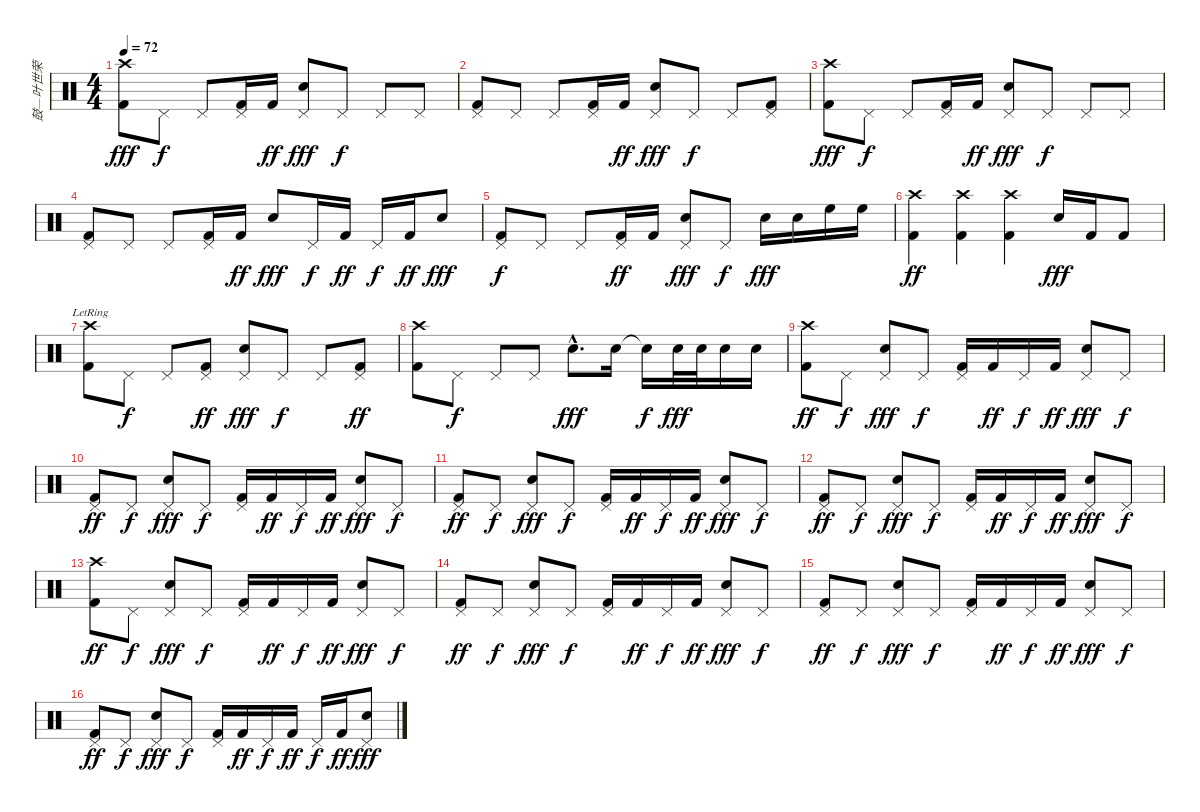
\track ("鼓—叶世荣" "鼓—叶世荣") {instrument percussion}
\staff {score}
\articulation defaults
\ts (4 4)
\tempo 72
\clef neutral
\ks c
("Crash high (hit)" "Kick (hit) 2").8{dy fff} "Pedal Hi-Hat (hit)".8{dy f} "Pedal Hi-Hat (hit)".8 ("Pedal Hi-Hat (hit)" "Kick (hit) 2").16 "Kick (hit) 2".16{dy ff} ("Pedal Hi-Hat (hit)" "Electric Snare (hit)").8{dy fff} "Pedal Hi-Hat (hit)".8{dy f} "Pedal Hi-Hat (hit)".8 "Pedal Hi-Hat (hit)".8 |
("Pedal Hi-Hat (hit)" "Kick (hit) 2").8 "Pedal Hi-Hat (hit)".8 "Pedal Hi-Hat (hit)".8 ("Pedal Hi-Hat (hit)" "Kick (hit) 2").16 "Kick (hit) 2".16{dy ff} ("Pedal Hi-Hat (hit)" "Electric Snare (hit)").8{dy fff} "Pedal Hi-Hat (hit)".8{dy f} "Pedal Hi-Hat (hit)".8 ("Pedal Hi-Hat (hit)" "Kick (hit) 2").8 |
("Crash high (hit)" "Kick (hit) 2").8{dy fff} "Pedal Hi-Hat (hit)".8{dy f} "Pedal Hi-Hat (hit)".8 ("Pedal Hi-Hat (hit)" "Kick (hit) 2").16 "Kick (hit) 2".16{dy ff} ("Pedal Hi-Hat (hit)" "Electric Snare (hit)").8{dy fff} "Pedal Hi-Hat (hit)".8{dy f} "Pedal Hi-Hat (hit)".8 "Pedal Hi-Hat (hit)".8 |
("Pedal Hi-Hat (hit)" "Kick (hit) 2").8 "Pedal Hi-Hat (hit)".8 "Pedal Hi-Hat (hit)".8 ("Pedal Hi-Hat (hit)" "Kick (hit) 2").16 "Kick (hit) 2".16{dy ff} "Electric Snare (hit)".8{dy fff} "Pedal Hi-Hat (hit)".16{dy f} "Kick (hit) 2".16{dy ff} "Pedal Hi-Hat (hit)".16{dy f} "Kick (hit) 2".16{dy ff} "Electric Snare (hit)".8{dy fff} |
("Pedal Hi-Hat (hit)" "Kick (hit) 2").8{dy f} "Pedal Hi-Hat (hit)".8 "Pedal Hi-Hat (hit)".8 ("Pedal Hi-Hat (hit)" "Kick (hit) 2").16{dy ff} "Kick (hit) 2".16 ("Pedal Hi-Hat (hit)" "Electric Snare (hit)").8{dy fff} "Pedal Hi-Hat (hit)".8{dy f} "Electric Snare (hit)".16{dy fff} "Electric Snare (hit)".16 "High Floor Tom (hit)".16 "High Floor Tom (hit)".16 |
("Crash high (hit)" "Kick (hit) 2").4{dy ff} ("Crash high (hit)" "Kick (hit) 2").4 ("Crash high (hit)" "Kick (hit) 2").4 "Electric Snare (hit)".16{dy fff} "Kick (hit) 2".16 "Kick (hit) 2".8 |
("Crash high (hit)"{lr} "Kick (hit) 2").8 "Pedal Hi-Hat (hit)".8{dy f} "Pedal Hi-Hat (hit)".8 ("Pedal Hi-Hat (hit)" "Kick (hit) 2").8{dy ff} ("Pedal Hi-Hat (hit)" "Electric Snare (hit)").8{dy fff} "Pedal Hi-Hat (hit)".8{dy f} "Pedal Hi-Hat (hit)".8 ("Pedal Hi-Hat (hit)" "Kick (hit) 2").8{dy ff} |
("Crash high (hit)" "Kick (hit) 2").8 "Pedal Hi-Hat (hit)".8{dy f} "Pedal Hi-Hat (hit)".8 "Pedal Hi-Hat (hit)".8 "Electric Snare (hit)"{hac}.8{d dy fff} "Electric Snare (hit)".16 "Snare (hit)"{t}.16{dy f} "Electric Snare (hit)".32{dy fff} "Electric Snare (hit)".32 "Electric Snare (hit)".16 "Electric Snare (hit)".16 |
("Crash high (hit)" "Kick (hit) 2").8{dy ff} "Pedal Hi-Hat (hit)".8{dy f} ("Pedal Hi-Hat (hit)" "Electric Snare (hit)").8{dy fff} "Pedal Hi-Hat (hit)".8{dy f} ("Pedal Hi-Hat (hit)" "Kick (hit) 2").16 "Kick (hit) 2".16{dy ff} "Pedal Hi-Hat (hit)".16{dy f} "Kick (hit) 2".16{dy ff} ("Pedal Hi-Hat (hit)" "Electric Snare (hit)").8{dy fff} "Pedal Hi-Hat (hit)".8{dy f} |
("Pedal Hi-Hat (hit)" "Kick (hit) 2").8{dy ff} "Pedal Hi-Hat (hit)".8{dy f} ("Pedal Hi-Hat (hit)" "Electric Snare (hit)").8{dy fff} "Pedal Hi-Hat (hit)".8{dy f} ("Pedal Hi-Hat (hit)" "Kick (hit) 2").16 "Kick (hit) 2".16{dy ff} "Pedal Hi-Hat (hit)".16{dy f} "Kick (hit) 2".16{dy ff} ("Pedal Hi-Hat (hit)" "Electric Snare (hit)").8{dy fff} "Pedal Hi-Hat (hit)".8{dy f} |
("Pedal Hi-Hat (hit)" "Kick (hit) 2").8{dy ff} "Pedal Hi-Hat (hit)".8{dy f} ("Pedal Hi-Hat (hit)" "Electric Snare (hit)").8{dy fff} "Pedal Hi-Hat (hit)".8{dy f} ("Pedal Hi-Hat (hit)" "Kick (hit) 2").16 "Kick (hit) 2".16{dy ff} "Pedal Hi-Hat (hit)".16{dy f} "Kick (hit) 2".16{dy ff} ("Pedal Hi-Hat (hit)" "Electric Snare (hit)").8{dy fff} "Pedal Hi-Hat (hit)".8{dy f} |
("Pedal Hi-Hat (hit)" "Kick (hit) 2").8{dy ff} "Pedal Hi-Hat (hit)".8{dy f} ("Pedal Hi-Hat (hit)" "Electric Snare (hit)").8{dy fff} "Pedal Hi-Hat (hit)".8{dy f} ("Pedal Hi-Hat (hit)" "Kick (hit) 2").16 "Kick (hit) 2".16{dy ff} "Pedal Hi-Hat (hit)".16{dy f} "Kick (hit) 2".16{dy ff} ("Pedal Hi-Hat (hit)" "Electric Snare (hit)").8{dy fff} "Pedal Hi-Hat (hit)".8{dy f} |
("Crash high (hit)" "Kick (hit) 2").8{dy ff} "Pedal Hi-Hat (hit)".8{dy f} ("Pedal Hi-Hat (hit)" "Electric Snare (hit)").8{dy fff} "Pedal Hi-Hat (hit)".8{dy f} ("Pedal Hi-Hat (hit)" "Kick (hit) 2").16 "Kick (hit) 2".16{dy ff} "Pedal Hi-Hat (hit)".16{dy f} "Kick (hit) 2".16{dy ff} ("Pedal Hi-Hat (hit)" "Electric Snare (hit)").8{dy fff} "Pedal Hi-Hat (hit)".8{dy f} |
("Pedal Hi-Hat (hit)" "Kick (hit) 2").8{dy ff} "Pedal Hi-Hat (hit)".8{dy f} ("Pedal Hi-Hat (hit)" "Electric Snare (hit)").8{dy fff} "Pedal Hi-Hat (hit)".8{dy f} ("Pedal Hi-Hat (hit)" "Kick (hit) 2").16 "Kick (hit) 2".16{dy ff} "Pedal Hi-Hat (hit)".16{dy f} "Kick (hit) 2".16{dy ff} ("Pedal Hi-Hat (hit)" "Electric Snare (hit)").8{dy fff} "Pedal Hi-Hat (hit)".8{dy f} |
("Pedal Hi-Hat (hit)" "Kick (hit) 2").8{dy ff} "Pedal Hi-Hat (hit)".8{dy f} ("Pedal Hi-Hat (hit)" "Electric Snare (hit)").8{dy fff} "Pedal Hi-Hat (hit)".8{dy f} ("Pedal Hi-Hat (hit)" "Kick (hit) 2").16 "Kick (hit) 2".16{dy ff} "Pedal Hi-Hat (hit)".16{dy f} "Kick (hit) 2".16{dy ff} ("Pedal Hi-Hat (hit)" "Electric Snare (hit)").8{dy fff} "Pedal Hi-Hat (hit)".8{dy f} |
("Pedal Hi-Hat (hit)" "Kick (hit) 2").8{dy ff} "Pedal Hi-Hat (hit)".8{dy f} ("Pedal Hi-Hat (hit)" "Electric Snare (hit)").8{dy fff} "Pedal Hi-Hat (hit)".8{dy f} ("Pedal Hi-Hat (hit)" "Kick (hit) 2").16 "Kick (hit) 2".16{dy ff} "Pedal Hi-Hat (hit)".16{dy f} "Kick (hit) 2".16{dy ff} "Pedal Hi-Hat (hit)".16{dy f} "Kick (hit) 2".16{dy ff} ("Pedal Hi-Hat (hit)" "Electric Snare (hit)").8{dy fff}
